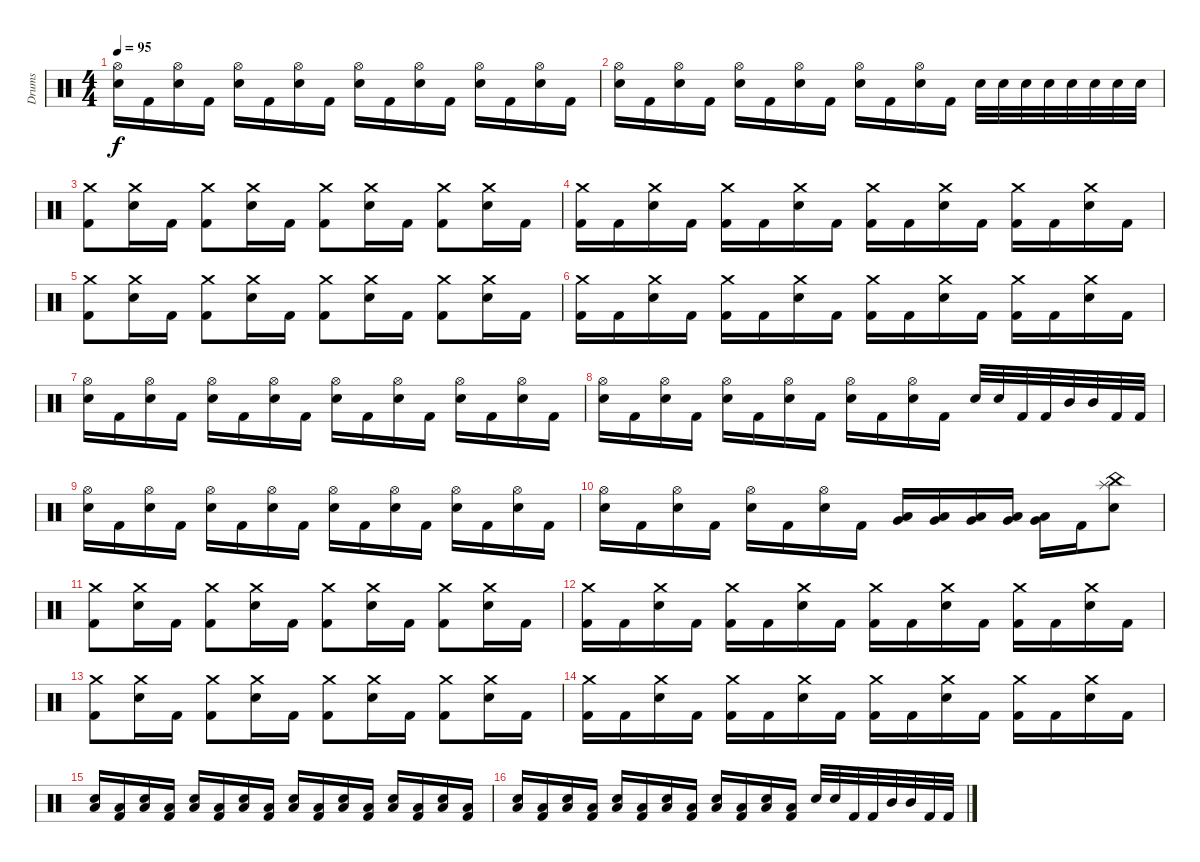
\track ("Drums" "Drums") {instrument percussion}
\staff {score}
\articulation defaults
\ts (4 4)
\tempo 95
\clef neutral
\ks c
("Hi-Hat (open)" "Electric Snare (hit)").16{dy f} "Kick (hit) 2".16 ("Hi-Hat (open)" "Electric Snare (hit)").16 "Kick (hit) 2".16 ("Hi-Hat (open)" "Electric Snare (hit)").16 "Kick (hit) 2".16 ("Hi-Hat (open)" "Electric Snare (hit)").16 "Kick (hit) 2".16 ("Hi-Hat (open)" "Electric Snare (hit)").16 "Kick (hit) 2".16 ("Hi-Hat (open)" "Electric Snare (hit)").16 "Kick (hit) 2".16 ("Hi-Hat (open)" "Electric Snare (hit)").16 "Kick (hit) 2".16 ("Hi-Hat (open)" "Electric Snare (hit)").16 "Kick (hit) 2".16 |
("Hi-Hat (open)" "Electric Snare (hit)").16 "Kick (hit) 2".16 ("Hi-Hat (open)" "Electric Snare (hit)").16 "Kick (hit) 2".16 ("Hi-Hat (open)" "Electric Snare (hit)").16 "Kick (hit) 2".16 ("Hi-Hat (open)" "Electric Snare (hit)").16 "Kick (hit) 2".16 ("Hi-Hat (open)" "Electric Snare (hit)").16 "Kick (hit) 2".16 ("Hi-Hat (open)" "Electric Snare (hit)").16 "Kick (hit) 2".16 "Electric Snare (hit)".32 "Electric Snare (hit)".32 "Electric Snare (hit)".32 "Electric Snare (hit)".32 "Electric Snare (hit)".32 "Electric Snare (hit)".32 "Electric Snare (hit)".32 "Electric Snare (hit)".32 |
("Crash medium (hit)" "Kick (hit) 2").8 ("Crash medium (hit)" "Electric Snare (hit)").16 "Kick (hit) 2".16 ("Crash medium (hit)" "Kick (hit) 2").8 ("Crash medium (hit)" "Electric Snare (hit)").16 "Kick (hit) 2".16 ("Crash medium (hit)" "Kick (hit) 2").8 ("Crash medium (hit)" "Electric Snare (hit)").16 "Kick (hit) 2".16 ("Crash medium (hit)" "Kick (hit) 2").8 ("Crash medium (hit)" "Electric Snare (hit)").16 "Kick (hit) 2".16 |
("Crash medium (hit)" "Kick (hit) 2").16 "Kick (hit) 2".16 ("Crash medium (hit)" "Electric Snare (hit)").16 "Kick (hit) 2".16 ("Crash medium (hit)" "Kick (hit) 2").16 "Kick (hit) 2".16 ("Crash medium (hit)" "Electric Snare (hit)").16 "Kick (hit) 2".16 ("Crash medium (hit)" "Kick (hit) 2").16 "Kick (hit) 2".16 ("Crash medium (hit)" "Electric Snare (hit)").16 "Kick (hit) 2".16 ("Crash medium (hit)" "Kick (hit) 2").16 "Kick (hit) 2".16 ("Crash medium (hit)" "Electric Snare (hit)").16 "Kick (hit) 2".16 |
("Crash medium (hit)" "Kick (hit) 2").8 ("Crash medium (hit)" "Electric Snare (hit)").16 "Kick (hit) 2".16 ("Crash medium (hit)" "Kick (hit) 2").8 ("Crash medium (hit)" "Electric Snare (hit)").16 "Kick (hit) 2".16 ("Crash medium (hit)" "Kick (hit) 2").8 ("Crash medium (hit)" "Electric Snare (hit)").16 "Kick (hit) 2".16 ("Crash medium (hit)" "Kick (hit) 2").8 ("Crash medium (hit)" "Electric Snare (hit)").16 "Kick (hit) 2".16 |
("Crash medium (hit)" "Kick (hit) 2").16 "Kick (hit) 2".16 ("Crash medium (hit)" "Electric Snare (hit)").16 "Kick (hit) 2".16 ("Crash medium (hit)" "Kick (hit) 2").16 "Kick (hit) 2".16 ("Crash medium (hit)" "Electric Snare (hit)").16 "Kick (hit) 2".16 ("Crash medium (hit)" "Kick (hit) 2").16 "Kick (hit) 2".16 ("Crash medium (hit)" "Electric Snare (hit)").16 "Kick (hit) 2".16 ("Crash medium (hit)" "Kick (hit) 2").16 "Kick (hit) 2".16 ("Crash medium (hit)" "Electric Snare (hit)").16 "Kick (hit) 2".16 |
("Hi-Hat (open)" "Electric Snare (hit)").16 "Kick (hit) 2".16 ("Hi-Hat (open)" "Electric Snare (hit)").16 "Kick (hit) 2".16 ("Hi-Hat (open)" "Electric Snare (hit)").16 "Kick (hit) 2".16 ("Hi-Hat (open)" "Electric Snare (hit)").16 "Kick (hit) 2".16 ("Hi-Hat (open)" "Electric Snare (hit)").16 "Kick (hit) 2".16 ("Hi-Hat (open)" "Electric Snare (hit)").16 "Kick (hit) 2".16 ("Hi-Hat (open)" "Electric Snare (hit)").16 "Kick (hit) 2".16 ("Hi-Hat (open)" "Electric Snare (hit)").16 "Kick (hit) 2".16 |
("Hi-Hat (open)" "Electric Snare (hit)").16 "Kick (hit) 2".16 ("Hi-Hat (open)" "Electric Snare (hit)").16 "Kick (hit) 2".16 ("Hi-Hat (open)" "Electric Snare (hit)").16 "Kick (hit) 2".16 ("Hi-Hat (open)" "Electric Snare (hit)").16 "Kick (hit) 2".16 ("Hi-Hat (open)" "Electric Snare (hit)").16 "Kick (hit) 2".16 ("Hi-Hat (open)" "Electric Snare (hit)").16 "Kick (hit) 2".16 "Electric Snare (hit)".32 "Electric Snare (hit)".32 "Kick (hit) 2".32 "Kick (hit) 2".32 "Mid Tom (hit)".32 "Mid Tom (hit)".32 "Kick (hit) 2".32 "Kick (hit) 2".32 |
("Hi-Hat (open)" "Electric Snare (hit)").16 "Kick (hit) 2".16 ("Hi-Hat (open)" "Electric Snare (hit)").16 "Kick (hit) 2".16 ("Hi-Hat (open)" "Electric Snare (hit)").16 "Kick (hit) 2".16 ("Hi-Hat (open)" "Electric Snare (hit)").16 "Kick (hit) 2".16 ("Hi-Hat (open)" "Electric Snare (hit)").16 "Kick (hit) 2".16 ("Hi-Hat (open)" "Electric Snare (hit)").16 "Kick (hit) 2".16 ("Hi-Hat (open)" "Electric Snare (hit)").16 "Kick (hit) 2".16 ("Hi-Hat (open)" "Electric Snare (hit)").16 "Kick (hit) 2".16 |
("Hi-Hat (open)" "Electric Snare (hit)").16 "Kick (hit) 2".16 ("Hi-Hat (open)" "Electric Snare (hit)").16 "Kick (hit) 2".16 ("Hi-Hat (open)" "Electric Snare (hit)").16 "Kick (hit) 2".16 ("Hi-Hat (open)" "Electric Snare (hit)").16 "Kick (hit) 2".16 ("Very Low Tom (hit)" "Low Tom (hit)").16 ("Very Low Tom (hit)" "Low Tom (hit)").16 ("Very Low Tom (hit)" "Low Tom (hit)").16 ("Very Low Tom (hit)" "Low Tom (hit)").16 ("Very Low Tom (hit)" "Low Tom (hit)").16 "Kick (hit) 2".16 ("China (hit)" "Splash (hit)" "Electric Snare (hit)").8 |
("Crash medium (hit)" "Kick (hit) 2").8 ("Crash medium (hit)" "Electric Snare (hit)").16 "Kick (hit) 2".16 ("Crash medium (hit)" "Kick (hit) 2").8 ("Crash medium (hit)" "Electric Snare (hit)").16 "Kick (hit) 2".16 ("Crash medium (hit)" "Kick (hit) 2").8 ("Crash medium (hit)" "Electric Snare (hit)").16 "Kick (hit) 2".16 ("Crash medium (hit)" "Kick (hit) 2").8 ("Crash medium (hit)" "Electric Snare (hit)").16 "Kick (hit) 2".16 |
("Crash medium (hit)" "Kick (hit) 2").16 "Kick (hit) 2".16 ("Crash medium (hit)" "Electric Snare (hit)").16 "Kick (hit) 2".16 ("Crash medium (hit)" "Kick (hit) 2").16 "Kick (hit) 2".16 ("Crash medium (hit)" "Electric Snare (hit)").16 "Kick (hit) 2".16 ("Crash medium (hit)" "Kick (hit) 2").16 "Kick (hit) 2".16 ("Crash medium (hit)" "Electric Snare (hit)").16 "Kick (hit) 2".16 ("Crash medium (hit)" "Kick (hit) 2").16 "Kick (hit) 2".16 ("Crash medium (hit)" "Electric Snare (hit)").16 "Kick (hit) 2".16 |
("Crash medium (hit)" "Kick (hit) 2").8 ("Crash medium (hit)" "Electric Snare (hit)").16 "Kick (hit) 2".16 ("Crash medium (hit)" "Kick (hit) 2").8 ("Crash medium (hit)" "Electric Snare (hit)").16 "Kick (hit) 2".16 ("Crash medium (hit)" "Kick (hit) 2").8 ("Crash medium (hit)" "Electric Snare (hit)").16 "Kick (hit) 2".16 ("Crash medium (hit)" "Kick (hit) 2").8 ("Crash medium (hit)" "Electric Snare (hit)").16 "Kick (hit) 2".16 |
("Crash medium (hit)" "Kick (hit) 2").16 "Kick (hit) 2".16 ("Crash medium (hit)" "Electric Snare (hit)").16 "Kick (hit) 2".16 ("Crash medium (hit)" "Kick (hit) 2").16 "Kick (hit) 2".16 ("Crash medium (hit)" "Electric Snare (hit)").16 "Kick (hit) 2".16 ("Crash medium (hit)" "Kick (hit) 2").16 "Kick (hit) 2".16 ("Crash medium (hit)" "Electric Snare (hit)").16 "Kick (hit) 2".16 ("Crash medium (hit)" "Kick (hit) 2").16 "Kick (hit) 2".16 ("Crash medium (hit)" "Electric Snare (hit)").16 "Kick (hit) 2".16 |
("Low Floor Tom (hit)" "Electric Snare (hit)").16 ("Low Floor Tom (hit)" "Kick (hit) 2").16 ("Low Floor Tom (hit)" "Electric Snare (hit)").16 ("Low Floor Tom (hit)" "Kick (hit) 2").16 ("Low Floor Tom (hit)" "Electric Snare (hit)").16 ("Low Floor Tom (hit)" "Kick (hit) 2").16 ("Low Floor Tom (hit)" "Electric Snare (hit)").16 ("Low Floor Tom (hit)" "Kick (hit) 2").16 ("Low Floor Tom (hit)" "Electric Snare (hit)").16 ("Low Floor Tom (hit)" "Kick (hit) 2").16 ("Low Floor Tom (hit)" "Electric Snare (hit)").16 ("Low Floor Tom (hit)" "Kick (hit) 2").16 ("Low Floor Tom (hit)" "Electric Snare (hit)").16 ("Low Floor Tom (hit)" "Kick (hit) 2").16 ("Low Floor Tom (hit)" "Electric Snare (hit)").16 ("Low Floor Tom (hit)" "Kick (hit) 2").16 |
("Low Floor Tom (hit)" "Electric Snare (hit)").16 ("Low Floor Tom (hit)" "Kick (hit) 2").16 ("Low Floor Tom (hit)" "Electric Snare (hit)").16 ("Low Floor Tom (hit)" "Kick (hit) 2").16 ("Low Floor Tom (hit)" "Electric Snare (hit)").16 ("Low Floor Tom (hit)" "Kick (hit) 2").16 ("Low Floor Tom (hit)" "Electric Snare (hit)").16 ("Low Floor Tom (hit)" "Kick (hit) 2").16 ("Low Floor Tom (hit)" "Electric Snare (hit)").16 ("Low Floor Tom (hit)" "Kick (hit) 2").16 ("Low Floor Tom (hit)" "Electric Snare (hit)").16 ("Low Floor Tom (hit)" "Kick (hit) 2").16 "Electric Snare (hit)".32 "Electric Snare (hit)".32 "Kick (hit) 2".32 "Kick (hit) 2".32 "Mid Tom (hit)".32 "Mid Tom (hit)".32 "Kick (hit) 2".32 "Kick (hit) 2".32
